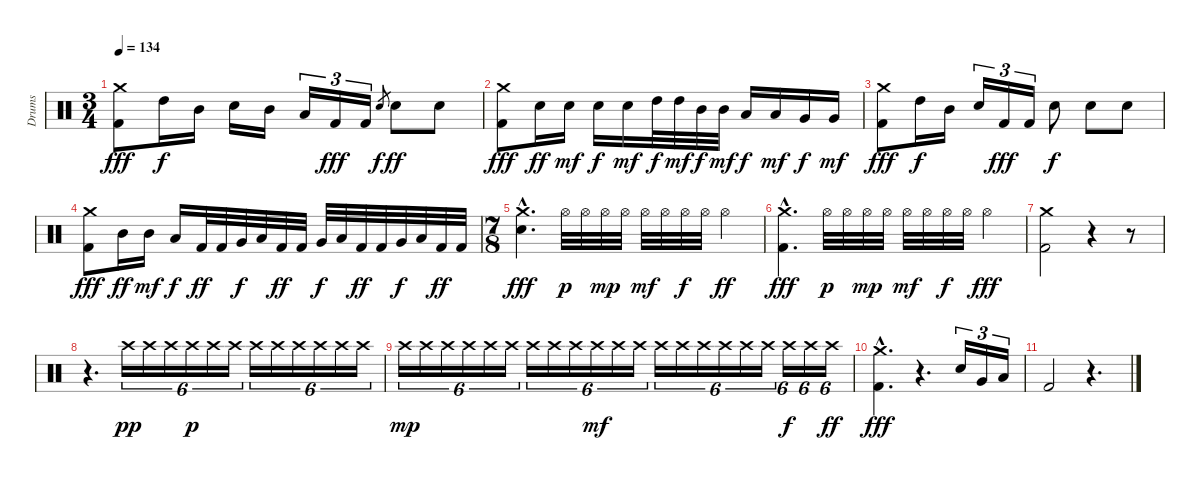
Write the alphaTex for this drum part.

\track ("Drums" "Drums") {instrument percussion}
\staff {score}
\articulation defaults
\ts (3 4)
\tempo 134
\clef neutral
\ks c
("Crash medium (hit)" "Kick (hit) 2").8{dy fff} "High Tom (hit)".16{dy f} "Mid Tom (hit)".16 "Snare (hit) 2".16 "Mid Tom (hit)".16 "Low Tom (hit)".16{tu (3 2)} "Kick (hit) 2".16{tu (3 2) dy fff} "Kick (hit) 2".16{tu (3 2)} "Snare (hit) 2".8{gr dy f} "Snare (hit) 2".8{dy ff} "Snare (hit) 2".8 |
("Crash medium (hit)" "Kick (hit) 2").8{dy fff} "Snare (hit) 2".16{dy ff} "Snare (hit) 2".16{dy mf} "Snare (hit) 2".16{dy f} "Snare (hit) 2".16{dy mf} "High Tom (hit)".32{dy f} "High Tom (hit)".32{dy mf} "Mid Tom (hit)".32{dy f} "Mid Tom (hit)".32{dy mf} "Low Tom (hit)".16{dy f} "Low Tom (hit)".16{dy mf} "Very Low Tom (hit)".16{dy f} "Very Low Tom (hit)".16{dy mf} |
("Crash medium (hit)" "Kick (hit) 2").8{dy fff} "High Tom (hit)".16{dy f} "Mid Tom (hit)".16 "Snare (hit) 2".16{tu (3 2)} "Kick (hit) 2".16{tu (3 2) dy fff} "Kick (hit) 2".16{tu (3 2)} "Snare (hit) 2".8{dy f} "Snare (hit) 2".8 "Snare (hit) 2".8 |
("Crash medium (hit)" "Kick (hit) 2").8{dy fff} "Mid Tom (hit)".16{dy ff} "Mid Tom (hit)".16{dy mf} "Low Tom (hit)".16{dy f} "Kick (hit) 2".32{dy ff} "Kick (hit) 2".32 "Very Low Tom (hit)".32{dy f} "Low Floor Tom (hit)".32 "Kick (hit) 2".32{dy ff} "Kick (hit) 2".32 "Very Low Tom (hit)".32{dy f} "Low Floor Tom (hit)".32 "Kick (hit) 2".32{dy ff} "Kick (hit) 2".32 "Very Low Tom (hit)".32{dy f} "Low Floor Tom (hit)".32 "Kick (hit) 2".32{dy ff} "Kick (hit) 2".32 |
\ts (7 8)
("Snare (hit) 2"{hac} "Crash medium (hit)"{hac}).4{d dy fff} "Hi-Hat (open)".32{dy p} "Hi-Hat (open)".32 "Hi-Hat (open)".32{dy mp} "Hi-Hat (open)".32 "Hi-Hat (open)".32{dy mf} "Hi-Hat (open)".32 "Hi-Hat (open)".32{dy f} "Hi-Hat (open)".32 "Hi-Hat (open)".4{dy ff} |
("Crash medium (hit)"{hac} "Kick (hit) 2"{hac}).4{d dy fff} "Hi-Hat (open)".32{dy p} "Hi-Hat (open)".32 "Hi-Hat (open)".32{dy mp} "Hi-Hat (open)".32 "Hi-Hat (open)".32{dy mf} "Hi-Hat (open)".32 "Hi-Hat (open)".32{dy f} "Hi-Hat (open)".32 "Hi-Hat (open)".4{dy fff} |
("Crash medium (hit)" "Kick (hit) 2").2 r.4 r.8 |
r.4{d} "Crash high (hit)".16{tu (6 4) dy pp} "Crash high (hit)".16{tu (6 4)} "Crash high (hit)".16{tu (6 4)} "Crash high (hit)".16{tu (6 4) dy p} "Crash high (hit)".16{tu (6 4)} "Crash high (hit)".16{tu (6 4)} "Crash high (hit)".16{tu (6 4)} "Crash high (hit)".16{tu (6 4)} "Crash high (hit)".16{tu (6 4)} "Crash high (hit)".16{tu (6 4)} "Crash high (hit)".16{tu (6 4)} "Crash high (hit)".16{tu (6 4)} |
"Crash high (hit)".16{tu (6 4) dy mp} "Crash high (hit)".16{tu (6 4)} "Crash high (hit)".16{tu (6 4)} "Crash high (hit)".16{tu (6 4)} "Crash high (hit)".16{tu (6 4)} "Crash high (hit)".16{tu (6 4)} "Crash high (hit)".16{tu (6 4)} "Crash high (hit)".16{tu (6 4)} "Crash high (hit)".16{tu (6 4)} "Crash high (hit)".16{tu (6 4) dy mf} "Crash high (hit)".16{tu (6 4)} "Crash high (hit)".16{tu (6 4)} "Crash high (hit)".16{tu (6 4)} "Crash high (hit)".16{tu (6 4)} "Crash high (hit)".16{tu (6 4)} "Crash high (hit)".16{tu (6 4)} "Crash high (hit)".16{tu (6 4)} "Crash high (hit)".16{tu (6 4)} "Crash high (hit)".16{tu (6 4) dy f} "Crash high (hit)".16{tu (6 4)} "Crash high (hit)".16{tu (6 4) dy ff} |
("Crash medium (hit)"{hac} "Kick (hit) 2"{hac}).4{d dy fff} r.4{d} "Snare (hit) 2".16{tu (3 2)} "Very Low Tom (hit)".16{tu (3 2)} "Low Floor Tom (hit)".16{tu (3 2)} |
"Kick (hit) 2".2 r.4{d}
